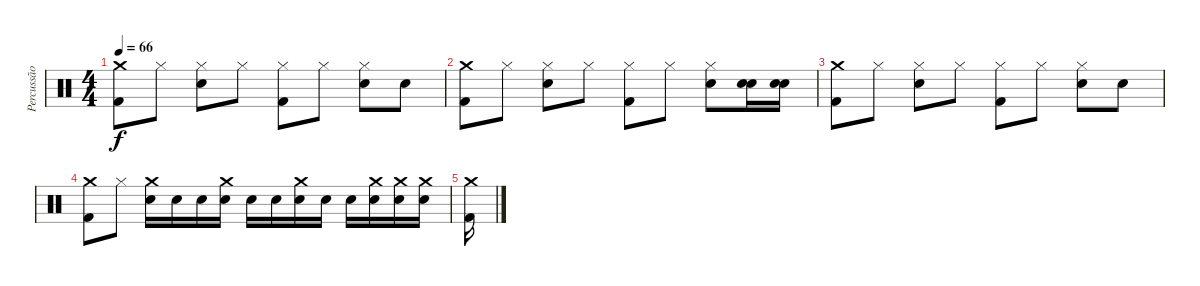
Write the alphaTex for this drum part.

\track ("Percussão" "Percussão") {instrument percussion}
\staff {score}
\articulation defaults
\ts (4 4)
\tempo 66
\clef neutral
\ks c
("Crash medium (hit)" "Kick (hit) 2").8{dy f} "Hi-Hat (closed)".8 ("Hi-Hat (closed)" "Snare (hit) 2").8 "Hi-Hat (closed)".8 ("Hi-Hat (closed)" "Kick (hit) 2").8 "Hi-Hat (closed)".8 ("Hi-Hat (closed)" "Snare (hit) 2").8 "Snare (hit) 2".8 |
("Crash medium (hit)" "Kick (hit) 2").8 "Hi-Hat (closed)".8 ("Hi-Hat (closed)" "Snare (hit) 2").8 "Hi-Hat (closed)".8 ("Hi-Hat (closed)" "Kick (hit) 2").8 "Hi-Hat (closed)".8 ("Hi-Hat (closed)" "Snare (hit) 2").8 ("Snare (hit) 2" "Snare (hit) 2").16{bu 240} ("Snare (hit) 2" "Snare (hit) 2").16{bu 240} |
("Crash medium (hit)" "Kick (hit) 2").8 "Hi-Hat (closed)".8 ("Hi-Hat (closed)" "Snare (hit) 2").8 "Hi-Hat (closed)".8 ("Hi-Hat (closed)" "Kick (hit) 2").8 "Hi-Hat (closed)".8 ("Hi-Hat (closed)" "Snare (hit) 2").8 "Snare (hit) 2".8 |
("Crash medium (hit)" "Kick (hit) 2").8 "Hi-Hat (closed)".8 ("Crash medium (hit)" "Snare (hit) 2").16 "Snare (hit) 2".16 "Snare (hit) 2".16 ("Crash medium (hit)" "Snare (hit) 2").16 "Snare (hit) 2".16 "Snare (hit) 2".16 ("Crash medium (hit)" "Snare (hit) 2").16 "Snare (hit) 2".16 "Snare (hit) 2".16 ("Crash medium (hit)" "Snare (hit) 2").16 ("Crash medium (hit)" "Snare (hit) 2").16 ("Crash medium (hit)" "Snare (hit) 2").16 |
("Crash medium (hit)" "Kick (hit) 2").16
